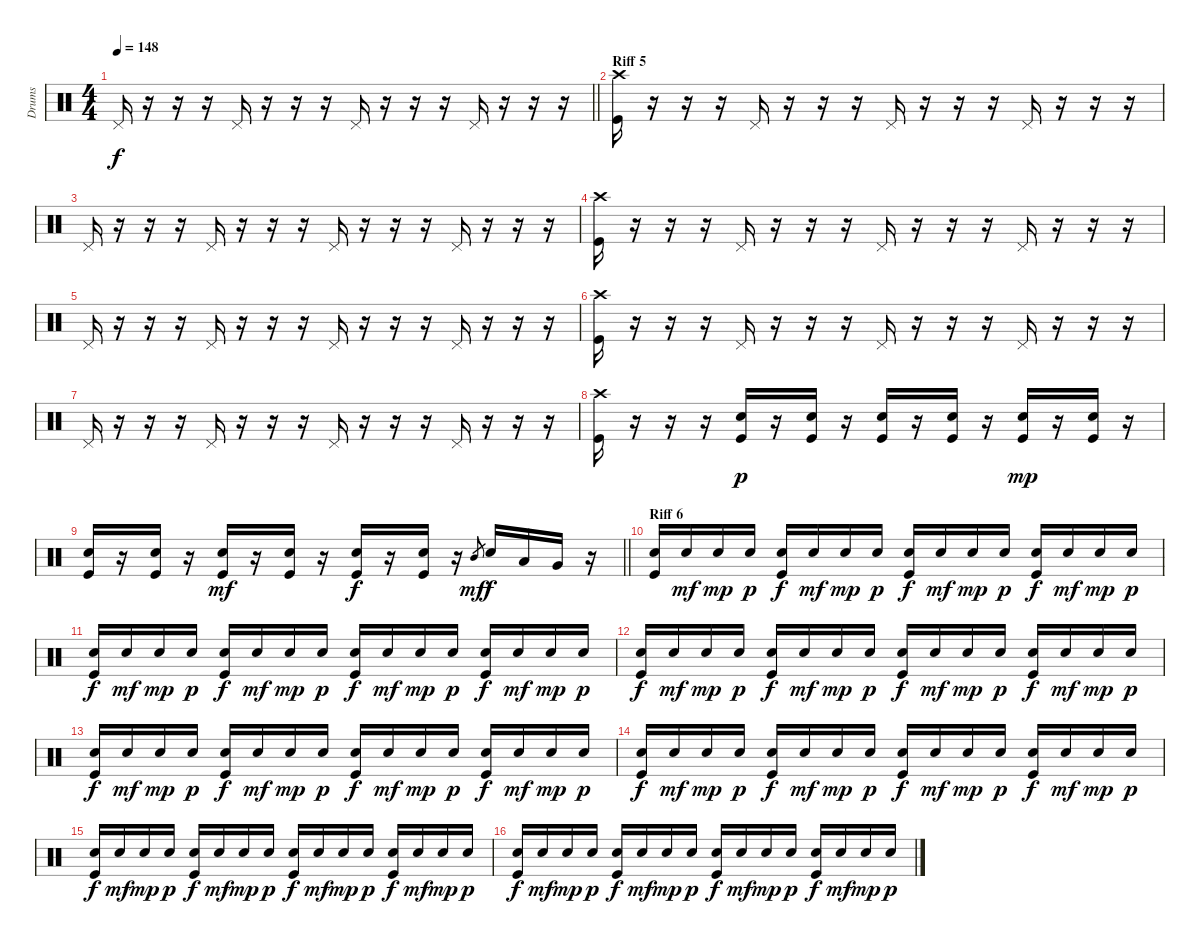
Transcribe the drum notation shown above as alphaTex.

\track ("Drums" "Drums") {instrument percussion}
\staff {score}
\articulation defaults
\ts (4 4)
\tempo 148
\clef neutral
\barLineRight lightlight
\ks c "Pedal Hi-Hat (hit)".16{dy f}
r.16 r.16 r.16 "Pedal Hi-Hat (hit)".16 r.16 r.16 r.16 "Pedal Hi-Hat (hit)".16 r.16 r.16 r.16 "Pedal Hi-Hat (hit)".16 r.16 r.16 r.16 |
\section ("" "Riff 5")
("Crash high (hit)" "Kick (hit)").16 r.16 r.16 r.16 "Pedal Hi-Hat (hit)".16 r.16 r.16 r.16 "Pedal Hi-Hat (hit)".16 r.16 r.16 r.16 "Pedal Hi-Hat (hit)".16 r.16 r.16 r.16 |
"Pedal Hi-Hat (hit)".16 r.16 r.16 r.16 "Pedal Hi-Hat (hit)".16 r.16 r.16 r.16 "Pedal Hi-Hat (hit)".16 r.16 r.16 r.16 "Pedal Hi-Hat (hit)".16 r.16 r.16 r.16 |
("Crash high (hit)" "Kick (hit)").16 r.16 r.16 r.16 "Pedal Hi-Hat (hit)".16 r.16 r.16 r.16 "Pedal Hi-Hat (hit)".16 r.16 r.16 r.16 "Pedal Hi-Hat (hit)".16 r.16 r.16 r.16 |
"Pedal Hi-Hat (hit)".16 r.16 r.16 r.16 "Pedal Hi-Hat (hit)".16 r.16 r.16 r.16 "Pedal Hi-Hat (hit)".16 r.16 r.16 r.16 "Pedal Hi-Hat (hit)".16 r.16 r.16 r.16 |
("Crash high (hit)" "Kick (hit)").16 r.16 r.16 r.16 "Pedal Hi-Hat (hit)".16 r.16 r.16 r.16 "Pedal Hi-Hat (hit)".16 r.16 r.16 r.16 "Pedal Hi-Hat (hit)".16 r.16 r.16 r.16 |
"Pedal Hi-Hat (hit)".16 r.16 r.16 r.16 "Pedal Hi-Hat (hit)".16 r.16 r.16 r.16 "Pedal Hi-Hat (hit)".16 r.16 r.16 r.16 "Pedal Hi-Hat (hit)".16 r.16 r.16 r.16 |
("Crash high (hit)" "Kick (hit)").16 r.16 r.16 r.16 ("Electric Snare (hit)" "Kick (hit)").16{dy p} r.16 ("Electric Snare (hit)" "Kick (hit)").16 r.16 ("Electric Snare (hit)" "Kick (hit)").16 r.16 ("Electric Snare (hit)" "Kick (hit)").16 r.16 ("Electric Snare (hit)" "Kick (hit)").16{dy mp} r.16 ("Electric Snare (hit)" "Kick (hit)").16 r.16 |
\barLineRight lightlight
("Electric Snare (hit)" "Kick (hit)").16 r.16 ("Electric Snare (hit)" "Kick (hit)").16 r.16 ("Electric Snare (hit)" "Kick (hit)").16{dy mf} r.16 ("Electric Snare (hit)" "Kick (hit)").16 r.16 ("Electric Snare (hit)" "Kick (hit)").16{dy f} r.16 ("Electric Snare (hit)" "Kick (hit)").16 r.16 "Mid Tom (hit)".8{gr dy mf} "Electric Snare (hit)".16{dy f} "Low Tom (hit)".16 "Very Low Tom (hit)".16 r.16 |
\section ("" "Riff 6")
("Snare (hit) 2" "Kick (hit)").16{volume 10} "Snare (hit) 2".16{dy mf} "Snare (hit) 2".16{dy mp} "Snare (hit) 2".16{dy p} ("Snare (hit) 2" "Kick (hit)").16{dy f} "Snare (hit) 2".16{dy mf} "Snare (hit) 2".16{dy mp} "Snare (hit) 2".16{dy p} ("Snare (hit) 2" "Kick (hit)").16{dy f} "Snare (hit) 2".16{dy mf} "Snare (hit) 2".16{dy mp} "Snare (hit) 2".16{dy p} ("Snare (hit) 2" "Kick (hit)").16{dy f} "Snare (hit) 2".16{dy mf} "Snare (hit) 2".16{dy mp} "Snare (hit) 2".16{dy p} |
("Snare (hit) 2" "Kick (hit)").16{dy f} "Snare (hit) 2".16{dy mf} "Snare (hit) 2".16{dy mp} "Snare (hit) 2".16{dy p} ("Snare (hit) 2" "Kick (hit)").16{dy f} "Snare (hit) 2".16{dy mf} "Snare (hit) 2".16{dy mp} "Snare (hit) 2".16{dy p} ("Snare (hit) 2" "Kick (hit)").16{dy f} "Snare (hit) 2".16{dy mf} "Snare (hit) 2".16{dy mp} "Snare (hit) 2".16{dy p} ("Snare (hit) 2" "Kick (hit)").16{dy f} "Snare (hit) 2".16{dy mf} "Snare (hit) 2".16{dy mp} "Snare (hit) 2".16{dy p} |
("Snare (hit) 2" "Kick (hit)").16{dy f} "Snare (hit) 2".16{dy mf} "Snare (hit) 2".16{dy mp} "Snare (hit) 2".16{dy p} ("Snare (hit) 2" "Kick (hit)").16{dy f} "Snare (hit) 2".16{dy mf} "Snare (hit) 2".16{dy mp} "Snare (hit) 2".16{dy p} ("Snare (hit) 2" "Kick (hit)").16{dy f} "Snare (hit) 2".16{dy mf} "Snare (hit) 2".16{dy mp} "Snare (hit) 2".16{dy p} ("Snare (hit) 2" "Kick (hit)").16{dy f} "Snare (hit) 2".16{dy mf} "Snare (hit) 2".16{dy mp} "Snare (hit) 2".16{dy p} |
("Snare (hit) 2" "Kick (hit)").16{dy f} "Snare (hit) 2".16{dy mf} "Snare (hit) 2".16{dy mp} "Snare (hit) 2".16{dy p} ("Snare (hit) 2" "Kick (hit)").16{dy f} "Snare (hit) 2".16{dy mf} "Snare (hit) 2".16{dy mp} "Snare (hit) 2".16{dy p} ("Snare (hit) 2" "Kick (hit)").16{dy f} "Snare (hit) 2".16{dy mf} "Snare (hit) 2".16{dy mp} "Snare (hit) 2".16{dy p} ("Snare (hit) 2" "Kick (hit)").16{dy f} "Snare (hit) 2".16{dy mf} "Snare (hit) 2".16{dy mp} "Snare (hit) 2".16{dy p} |
("Snare (hit) 2" "Kick (hit)").16{dy f volume 11} "Snare (hit) 2".16{dy mf} "Snare (hit) 2".16{dy mp} "Snare (hit) 2".16{dy p} ("Snare (hit) 2" "Kick (hit)").16{dy f} "Snare (hit) 2".16{dy mf} "Snare (hit) 2".16{dy mp} "Snare (hit) 2".16{dy p} ("Snare (hit) 2" "Kick (hit)").16{dy f} "Snare (hit) 2".16{dy mf} "Snare (hit) 2".16{dy mp} "Snare (hit) 2".16{dy p} ("Snare (hit) 2" "Kick (hit)").16{dy f} "Snare (hit) 2".16{dy mf} "Snare (hit) 2".16{dy mp} "Snare (hit) 2".16{dy p} |
("Snare (hit) 2" "Kick (hit)").16{dy f} "Snare (hit) 2".16{dy mf} "Snare (hit) 2".16{dy mp} "Snare (hit) 2".16{dy p} ("Snare (hit) 2" "Kick (hit)").16{dy f} "Snare (hit) 2".16{dy mf} "Snare (hit) 2".16{dy mp} "Snare (hit) 2".16{dy p} ("Snare (hit) 2" "Kick (hit)").16{dy f} "Snare (hit) 2".16{dy mf} "Snare (hit) 2".16{dy mp} "Snare (hit) 2".16{dy p} ("Snare (hit) 2" "Kick (hit)").16{dy f} "Snare (hit) 2".16{dy mf} "Snare (hit) 2".16{dy mp} "Snare (hit) 2".16{dy p} |
("Snare (hit) 2" "Kick (hit)").16{dy f} "Snare (hit) 2".16{dy mf} "Snare (hit) 2".16{dy mp} "Snare (hit) 2".16{dy p} ("Snare (hit) 2" "Kick (hit)").16{dy f} "Snare (hit) 2".16{dy mf} "Snare (hit) 2".16{dy mp} "Snare (hit) 2".16{dy p} ("Snare (hit) 2" "Kick (hit)").16{dy f} "Snare (hit) 2".16{dy mf} "Snare (hit) 2".16{dy mp} "Snare (hit) 2".16{dy p} ("Snare (hit) 2" "Kick (hit)").16{dy f} "Snare (hit) 2".16{dy mf} "Snare (hit) 2".16{dy mp} "Snare (hit) 2".16{dy p}
